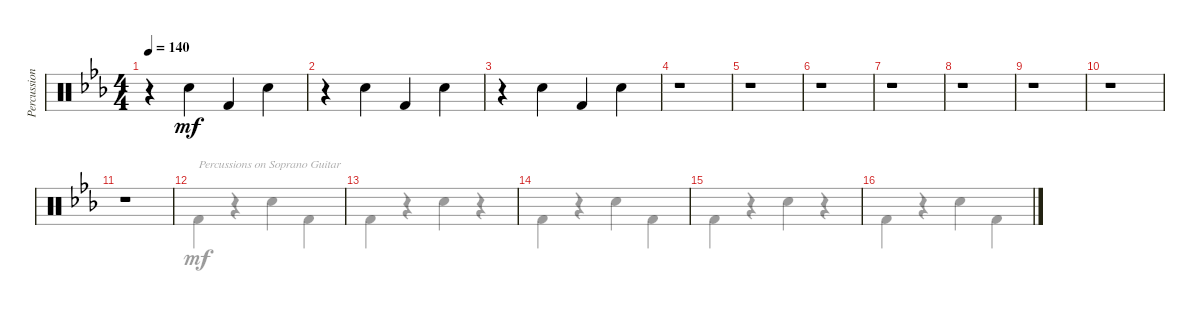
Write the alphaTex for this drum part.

\track ("Percussions" "Percussion") {instrument percussion}
\staff {score}
\articulation defaults
\voice
\ts (4 4)
\tempo 140
\clef neutral
\ks cminor
r.4{dy mf} "Snare (hit) 2".4 "Kick (hit) 2".4 "Snare (hit) 2".4 |
r.4 "Snare (hit) 2".4 "Kick (hit) 2".4 "Snare (hit) 2".4 |
r.4 "Snare (hit) 2".4 "Kick (hit) 2".4 "Snare (hit) 2".4 |
r.1 |
r.1 |
r.1 |
r.1 |
r.1 |
r.1 |
r.1 |
r.1 |
|
|
|
|
\voice
\clef neutral
\ottava regular
\simile none
\ks cminor
|
|
|
|
|
|
|
|
|
|
|
"Kick (hit) 2".4{txt "Percussions on Soprano Guitar"} r.4 "Snare (hit) 2".4 "Kick (hit) 2".4 |
"Kick (hit) 2".4 r.4 "Snare (hit) 2".4 r.4 |
"Kick (hit) 2".4 r.4 "Snare (hit) 2".4 "Kick (hit) 2".4 |
"Kick (hit) 2".4 r.4 "Snare (hit) 2".4 r.4 |
"Kick (hit) 2".4 r.4 "Snare (hit) 2".4 "Kick (hit) 2".4
